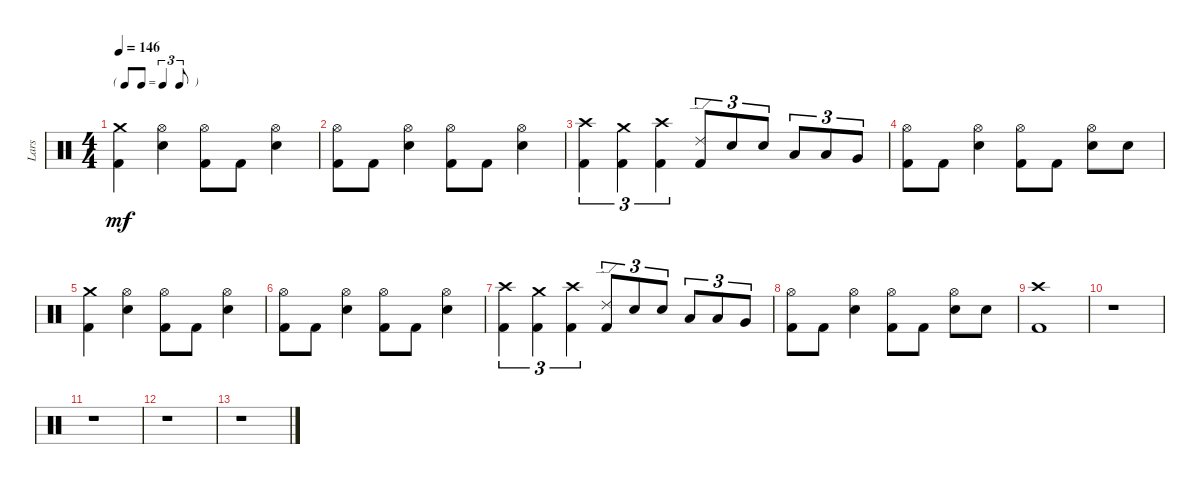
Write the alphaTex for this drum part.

\track ("Lars" "Lars") {instrument percussion}
\staff {score}
\articulation defaults
\ts (4 4)
\tf triplet8th
\tempo 146
\clef neutral
\ks c
("Crash medium (hit)" "Kick (hit) 2").4{dy mf} ("Hi-Hat (open)" "Electric Snare (hit)").4 ("Hi-Hat (open)" "Kick (hit) 2").8 "Kick (hit) 2".8 ("Hi-Hat (open)" "Electric Snare (hit)").4 |
("Hi-Hat (open)" "Kick (hit) 2").8 "Kick (hit) 2".8 ("Hi-Hat (open)" "Electric Snare (hit)").4 ("Hi-Hat (open)" "Kick (hit) 2").8 "Kick (hit) 2".8 ("Hi-Hat (open)" "Electric Snare (hit)").4 |
("Crash high (hit)" "Kick (hit) 2").4{tu (3 2)} ("Crash medium (hit)" "Kick (hit) 2").4{tu (3 2)} ("Crash high (hit)" "Kick (hit) 2").4{tu (3 2)} ("Ride (edge) 2" "Kick (hit) 2").8{tu (3 2)} "Electric Snare (hit)".8{tu (3 2)} "Electric Snare (hit)".8{tu (3 2)} "Low Tom (hit)".8{tu (3 2)} "Low Tom (hit)".8{tu (3 2)} "Very Low Tom (hit)".8{tu (3 2)} |
("Hi-Hat (open)" "Kick (hit) 2").8 "Kick (hit) 2".8 ("Hi-Hat (open)" "Electric Snare (hit)").4 ("Hi-Hat (open)" "Kick (hit) 2").8 "Kick (hit) 2".8 ("Hi-Hat (open)" "Electric Snare (hit)").8 "Electric Snare (hit)".8 |
("Crash medium (hit)" "Kick (hit) 2").4 ("Hi-Hat (open)" "Electric Snare (hit)").4 ("Hi-Hat (open)" "Kick (hit) 2").8 "Kick (hit) 2".8 ("Hi-Hat (open)" "Electric Snare (hit)").4 |
("Hi-Hat (open)" "Kick (hit) 2").8 "Kick (hit) 2".8 ("Hi-Hat (open)" "Electric Snare (hit)").4 ("Hi-Hat (open)" "Kick (hit) 2").8 "Kick (hit) 2".8 ("Hi-Hat (open)" "Electric Snare (hit)").4 |
("Crash high (hit)" "Kick (hit) 2").4{tu (3 2)} ("Crash medium (hit)" "Kick (hit) 2").4{tu (3 2)} ("Crash high (hit)" "Kick (hit) 2").4{tu (3 2)} ("Ride (edge) 2" "Kick (hit) 2").8{tu (3 2)} "Electric Snare (hit)".8{tu (3 2)} "Electric Snare (hit)".8{tu (3 2)} "Low Tom (hit)".8{tu (3 2)} "Low Tom (hit)".8{tu (3 2)} "Very Low Tom (hit)".8{tu (3 2)} |
("Hi-Hat (open)" "Kick (hit) 2").8 "Kick (hit) 2".8 ("Hi-Hat (open)" "Electric Snare (hit)").4 ("Hi-Hat (open)" "Kick (hit) 2").8 "Kick (hit) 2".8 ("Hi-Hat (open)" "Electric Snare (hit)").8 "Electric Snare (hit)".8 |
("Crash high (hit)" "Kick (hit) 2").1 |
r.1 |
r.1 |
r.1 |
r.1
